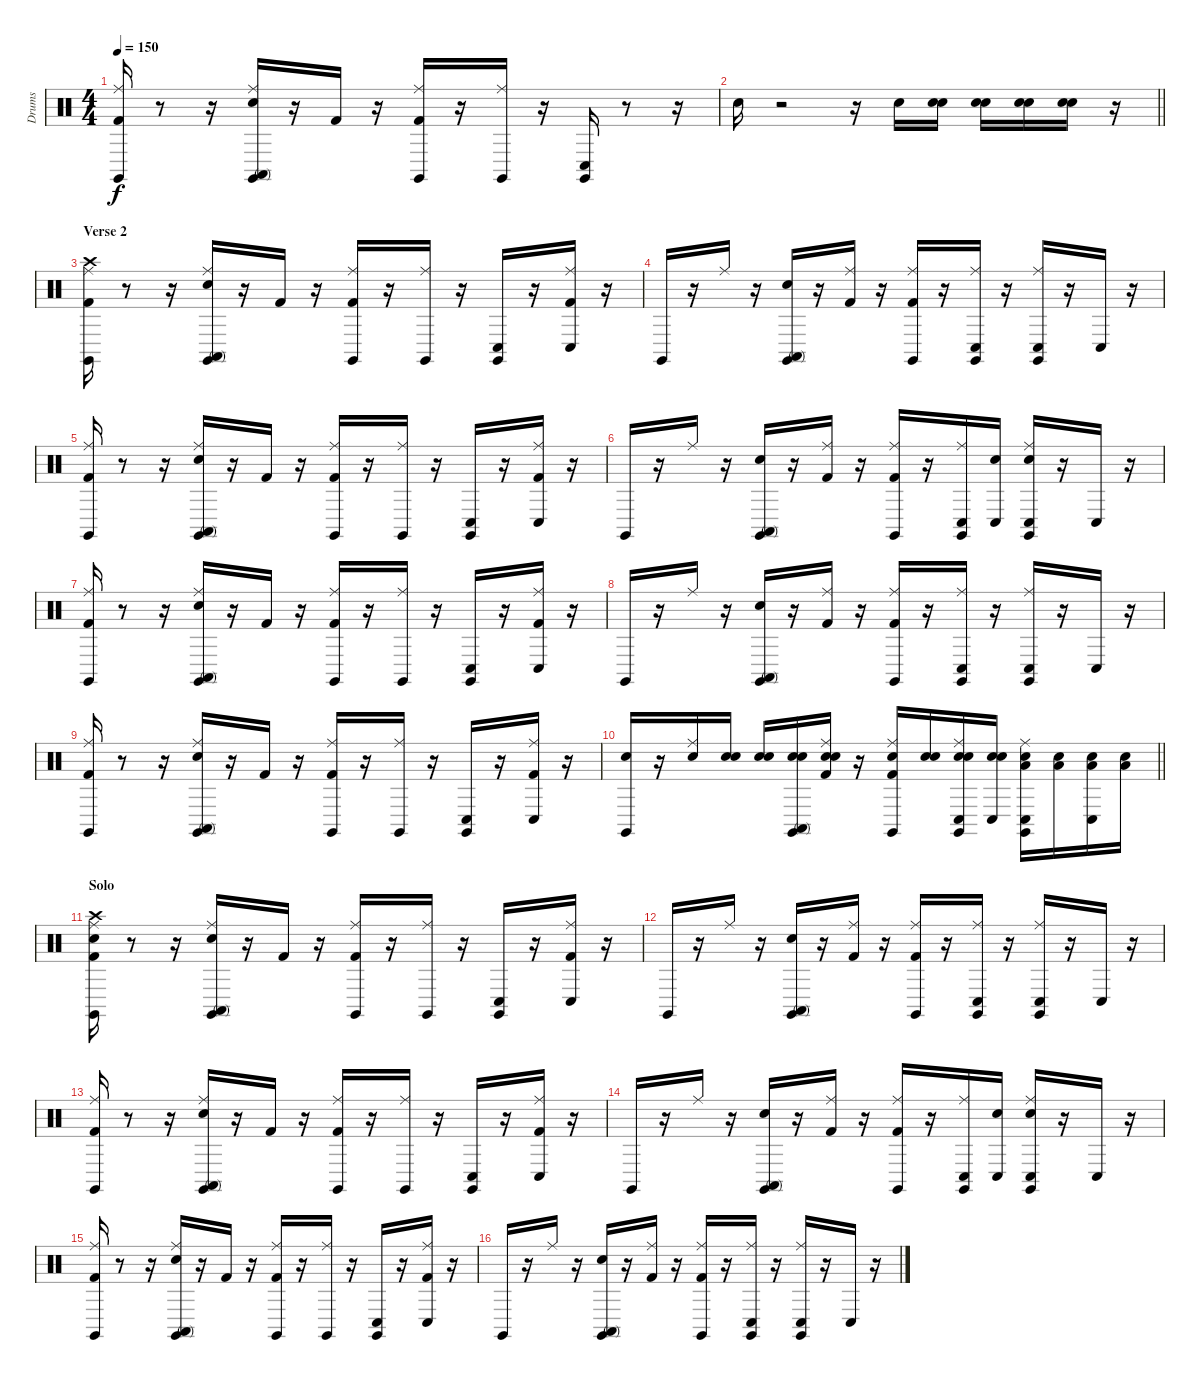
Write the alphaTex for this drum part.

\track ("Drums" "Drums") {instrument percussion}
\staff {score}
\articulation defaults
\ts (4 4)
\tempo 150
\clef neutral
\ks c
("Kick (hit) 2" "Ride (middle)" "Claves (hit)").16{dy f} r.8 r.16 ("Snare (hit) 2" "Ride (middle)" "Conga high (mute)" "Claves (hit)").16 r.16 "Kick (hit) 2".16 r.16 ("Kick (hit) 2" "Ride (middle)" "Claves (hit)").16 r.16 ("Ride (middle)" "Claves (hit)").16 r.16 ("Conga low (hit)" "Claves (hit)").16 r.8 r.16 |
\barLineRight lightlight "Snare (hit) 2".16
r.2 r.16 "Snare (hit) 2".16 ("Snare (hit)" "Snare (hit) 2").16 ("Snare (hit)" "Snare (hit) 2").16 ("Snare (hit)" "Snare (hit) 2").16 ("Snare (hit)" "Snare (hit) 2").16 r.16 |
\section ("" "Verse 2")
("Kick (hit) 2" "Crash high (hit)" "Ride (middle)" "Claves (hit)").16 r.8 r.16 ("Snare (hit) 2" "Ride (middle)" "Conga high (mute)" "Claves (hit)").16 r.16 "Kick (hit) 2".16 r.16 ("Kick (hit) 2" "Ride (middle)" "Claves (hit)").16 r.16 ("Ride (middle)" "Claves (hit)").16 r.16 ("Conga low (hit)" "Claves (hit)").16 r.16 ("Kick (hit) 2" "Ride (middle)" "Conga low (hit)").16 r.16 |
"Claves (hit)".16 r.16 "Ride (middle)".16 r.16 ("Snare (hit) 2" "Conga high (mute)" "Claves (hit)").16 r.16 ("Kick (hit) 2" "Ride (middle)").16 r.16 ("Kick (hit) 2" "Ride (middle)" "Claves (hit)").16 r.16 ("Ride (middle)" "Conga low (hit)" "Claves (hit)").16 r.16 ("Ride (middle)" "Conga low (hit)" "Claves (hit)").16 r.16 "Conga low (hit)".16 r.16 |
("Kick (hit) 2" "Ride (middle)" "Claves (hit)").16 r.8 r.16 ("Snare (hit) 2" "Ride (middle)" "Conga high (mute)" "Claves (hit)").16 r.16 "Kick (hit) 2".16 r.16 ("Kick (hit) 2" "Ride (middle)" "Claves (hit)").16 r.16 ("Ride (middle)" "Claves (hit)").16 r.16 ("Conga low (hit)" "Claves (hit)").16 r.16 ("Kick (hit) 2" "Ride (middle)" "Conga low (hit)").16 r.16 |
"Claves (hit)".16 r.16 "Ride (middle)".16 r.16 ("Snare (hit) 2" "Conga high (mute)" "Claves (hit)").16 r.16 ("Kick (hit) 2" "Ride (middle)").16 r.16 ("Kick (hit) 2" "Ride (middle)" "Claves (hit)").16 r.16 ("Ride (middle)" "Conga low (hit)" "Claves (hit)").16 ("Snare (hit)" "Conga low (hit)").16 ("Snare (hit)" "Ride (middle)" "Conga low (hit)" "Claves (hit)").16 r.16 "Conga low (hit)".16 r.16 |
("Kick (hit) 2" "Ride (middle)" "Claves (hit)").16 r.8 r.16 ("Snare (hit) 2" "Ride (middle)" "Conga high (mute)" "Claves (hit)").16 r.16 "Kick (hit) 2".16 r.16 ("Kick (hit) 2" "Ride (middle)" "Claves (hit)").16 r.16 ("Ride (middle)" "Claves (hit)").16 r.16 ("Conga low (hit)" "Claves (hit)").16 r.16 ("Kick (hit) 2" "Ride (middle)" "Conga low (hit)").16 r.16 |
"Claves (hit)".16 r.16 "Ride (middle)".16 r.16 ("Snare (hit) 2" "Conga high (mute)" "Claves (hit)").16 r.16 ("Kick (hit) 2" "Ride (middle)").16 r.16 ("Kick (hit) 2" "Ride (middle)" "Claves (hit)").16 r.16 ("Ride (middle)" "Conga low (hit)" "Claves (hit)").16 r.16 ("Ride (middle)" "Conga low (hit)" "Claves (hit)").16 r.16 "Conga low (hit)".16 r.16 |
("Kick (hit) 2" "Ride (middle)" "Claves (hit)").16 r.8 r.16 ("Snare (hit) 2" "Ride (middle)" "Conga high (mute)" "Claves (hit)").16 r.16 "Kick (hit) 2".16 r.16 ("Kick (hit) 2" "Ride (middle)" "Claves (hit)").16 r.16 ("Ride (middle)" "Claves (hit)").16 r.16 ("Conga low (hit)" "Claves (hit)").16 r.16 ("Kick (hit) 2" "Ride (middle)" "Conga low (hit)").16 r.16 |
\barLineRight lightlight
("Snare (hit) 2" "Claves (hit)").16 r.16 ("Ride (middle)" "Snare (hit) 2").16 ("Snare (hit)" "Snare (hit) 2").16 ("Snare (hit)" "Snare (hit) 2").16 ("Snare (hit)" "Snare (hit) 2" "Conga high (mute)" "Claves (hit)").16 ("Snare (hit)" "Snare (hit) 2" "Kick (hit) 2" "Ride (middle)").16 r.16 ("Kick (hit) 2" "Snare (hit) 2" "Ride (middle)" "Claves (hit)").16 ("Snare (hit)" "Snare (hit) 2").16 ("Snare (hit)" "Snare (hit) 2" "Ride (middle)" "Conga low (hit)" "Claves (hit)").16 ("Snare (hit)" "Snare (hit) 2" "Conga low (hit)").16 ("Snare (hit)" "Low Tom (hit)" "Ride (middle)" "Conga low (hit)" "Claves (hit)").16 ("Snare (hit)" "Low Tom (hit)").16 ("Snare (hit)" "Low Floor Tom (hit)" "Conga low (hit)").16 ("Snare (hit)" "Low Floor Tom (hit)").16 |
\section ("" "Solo")
("Snare (hit)" "Kick (hit) 2" "Crash high (hit)" "Ride (middle)" "Claves (hit)").16 r.8 r.16 ("Snare (hit) 2" "Ride (middle)" "Conga high (mute)" "Claves (hit)").16 r.16 "Kick (hit) 2".16 r.16 ("Kick (hit) 2" "Ride (middle)" "Claves (hit)").16 r.16 ("Ride (middle)" "Claves (hit)").16 r.16 ("Conga low (hit)" "Claves (hit)").16 r.16 ("Kick (hit) 2" "Ride (middle)" "Conga low (hit)").16 r.16 |
"Claves (hit)".16 r.16 "Ride (middle)".16 r.16 ("Snare (hit) 2" "Conga high (mute)" "Claves (hit)").16 r.16 ("Kick (hit) 2" "Ride (middle)").16 r.16 ("Kick (hit) 2" "Ride (middle)" "Claves (hit)").16 r.16 ("Ride (middle)" "Conga low (hit)" "Claves (hit)").16 r.16 ("Ride (middle)" "Conga low (hit)" "Claves (hit)").16 r.16 "Conga low (hit)".16 r.16 |
("Kick (hit) 2" "Ride (middle)" "Claves (hit)").16 r.8 r.16 ("Snare (hit) 2" "Ride (middle)" "Conga high (mute)" "Claves (hit)").16 r.16 "Kick (hit) 2".16 r.16 ("Kick (hit) 2" "Ride (middle)" "Claves (hit)").16 r.16 ("Ride (middle)" "Claves (hit)").16 r.16 ("Conga low (hit)" "Claves (hit)").16 r.16 ("Kick (hit) 2" "Ride (middle)" "Conga low (hit)").16 r.16 |
"Claves (hit)".16 r.16 "Ride (middle)".16 r.16 ("Snare (hit) 2" "Conga high (mute)" "Claves (hit)").16 r.16 ("Kick (hit) 2" "Ride (middle)").16 r.16 ("Kick (hit) 2" "Ride (middle)" "Claves (hit)").16 r.16 ("Ride (middle)" "Conga low (hit)" "Claves (hit)").16 ("Snare (hit)" "Conga low (hit)").16 ("Snare (hit)" "Ride (middle)" "Conga low (hit)" "Claves (hit)").16 r.16 "Conga low (hit)".16 r.16 |
("Kick (hit) 2" "Ride (middle)" "Claves (hit)").16 r.8 r.16 ("Snare (hit) 2" "Ride (middle)" "Conga high (mute)" "Claves (hit)").16 r.16 "Kick (hit) 2".16 r.16 ("Kick (hit) 2" "Ride (middle)" "Claves (hit)").16 r.16 ("Ride (middle)" "Claves (hit)").16 r.16 ("Conga low (hit)" "Claves (hit)").16 r.16 ("Kick (hit) 2" "Ride (middle)" "Conga low (hit)").16 r.16 |
"Claves (hit)".16 r.16 "Ride (middle)".16 r.16 ("Snare (hit) 2" "Conga high (mute)" "Claves (hit)").16 r.16 ("Kick (hit) 2" "Ride (middle)").16 r.16 ("Kick (hit) 2" "Ride (middle)" "Claves (hit)").16 r.16 ("Ride (middle)" "Conga low (hit)" "Claves (hit)").16 r.16 ("Ride (middle)" "Conga low (hit)" "Claves (hit)").16 r.16 "Conga low (hit)".16 r.16
